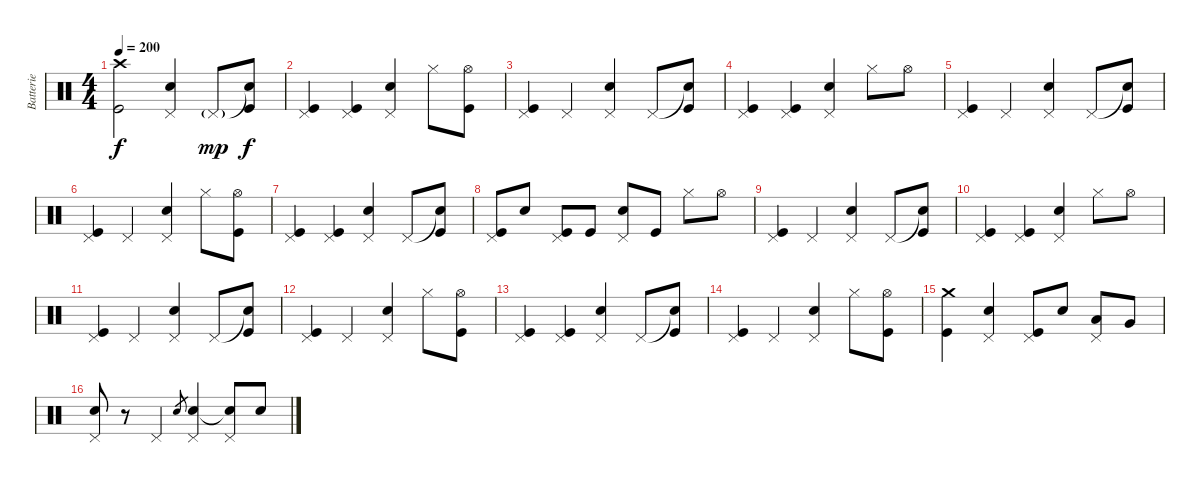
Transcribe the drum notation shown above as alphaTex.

\track ("Batterie" "Batterie") {instrument percussion}
\staff {score}
\articulation defaults
\ts (4 4)
\tempo 200
\clef neutral
\ks c
("Crash high (hit)" "Kick (hit)").2{dy f} ("Pedal Hi-Hat (hit)" "Snare (hit) 2").4 "Pedal Hi-Hat (hit)"{g}.8{dy mp} ("Snare (hit)"{t} "Kick (hit)").8{dy f} |
("Pedal Hi-Hat (hit)" "Kick (hit)").4 ("Pedal Hi-Hat (hit)" "Kick (hit)").4 ("Pedal Hi-Hat (hit)" "Snare (hit) 2").4 "Hi-Hat (closed)".8 ("Hi-Hat (open)" "Kick (hit)").8 |
("Pedal Hi-Hat (hit)" "Kick (hit)").4 "Pedal Hi-Hat (hit)".4 ("Pedal Hi-Hat (hit)" "Snare (hit) 2").4 "Pedal Hi-Hat (hit)".8 ("Snare (hit)"{t} "Kick (hit)").8 |
("Pedal Hi-Hat (hit)" "Kick (hit)").4 ("Pedal Hi-Hat (hit)" "Kick (hit)").4 ("Pedal Hi-Hat (hit)" "Snare (hit) 2").4 "Hi-Hat (closed)".8 "Hi-Hat (open)".8 |
("Pedal Hi-Hat (hit)" "Kick (hit)").4 "Pedal Hi-Hat (hit)".4 ("Pedal Hi-Hat (hit)" "Snare (hit) 2").4 "Pedal Hi-Hat (hit)".8 ("Snare (hit)"{t} "Kick (hit)").8 |
("Pedal Hi-Hat (hit)" "Kick (hit)").4 "Pedal Hi-Hat (hit)".4 ("Pedal Hi-Hat (hit)" "Snare (hit) 2").4 "Hi-Hat (closed)".8 ("Hi-Hat (open)" "Kick (hit)").8 |
("Pedal Hi-Hat (hit)" "Kick (hit)").4 ("Pedal Hi-Hat (hit)" "Kick (hit)").4 ("Pedal Hi-Hat (hit)" "Snare (hit) 2").4 "Pedal Hi-Hat (hit)".8 ("Snare (hit)"{t} "Kick (hit)").8 |
("Pedal Hi-Hat (hit)" "Kick (hit)").8 "Snare (hit) 2".8 ("Pedal Hi-Hat (hit)" "Kick (hit)").8 "Kick (hit)".8 ("Pedal Hi-Hat (hit)" "Snare (hit) 2").8 "Kick (hit)".8 "Hi-Hat (closed)".8 "Hi-Hat (open)".8 |
("Pedal Hi-Hat (hit)" "Kick (hit)").4 "Pedal Hi-Hat (hit)".4 ("Pedal Hi-Hat (hit)" "Snare (hit) 2").4 "Pedal Hi-Hat (hit)".8 ("Snare (hit)"{t} "Kick (hit)").8 |
("Pedal Hi-Hat (hit)" "Kick (hit)").4 ("Pedal Hi-Hat (hit)" "Kick (hit)").4 ("Pedal Hi-Hat (hit)" "Snare (hit) 2").4 "Hi-Hat (closed)".8 "Hi-Hat (open)".8 |
("Pedal Hi-Hat (hit)" "Kick (hit)").4 "Pedal Hi-Hat (hit)".4 ("Pedal Hi-Hat (hit)" "Snare (hit) 2").4 "Pedal Hi-Hat (hit)".8 ("Snare (hit)"{t} "Kick (hit)").8 |
("Pedal Hi-Hat (hit)" "Kick (hit)").4 "Pedal Hi-Hat (hit)".4 ("Pedal Hi-Hat (hit)" "Snare (hit) 2").4 "Hi-Hat (closed)".8 ("Hi-Hat (open)" "Kick (hit)").8 |
("Pedal Hi-Hat (hit)" "Kick (hit)").4 ("Pedal Hi-Hat (hit)" "Kick (hit)").4 ("Pedal Hi-Hat (hit)" "Snare (hit) 2").4 "Pedal Hi-Hat (hit)".8 ("Snare (hit)"{t} "Kick (hit)").8 |
("Pedal Hi-Hat (hit)" "Kick (hit)").4 "Pedal Hi-Hat (hit)".4 ("Pedal Hi-Hat (hit)" "Snare (hit) 2").4 "Hi-Hat (closed)".8 ("Hi-Hat (open)" "Kick (hit)").8 |
("Crash medium (hit)" "Kick (hit)").4 ("Pedal Hi-Hat (hit)" "Snare (hit) 2").4 ("Pedal Hi-Hat (hit)" "Kick (hit)").8 "Snare (hit) 2".8 ("Pedal Hi-Hat (hit)" "Low Tom (hit)").8 "Very Low Tom (hit)".8 |
("Pedal Hi-Hat (hit)" "Snare (hit) 2").8 r.8 "Pedal Hi-Hat (hit)".4 "Snare (hit) 2".8{gr} ("Pedal Hi-Hat (hit)" "Snare (hit) 2").4 ("Pedal Hi-Hat (hit)" "Snare (hit)"{t}).8 "Snare (hit) 2".8
